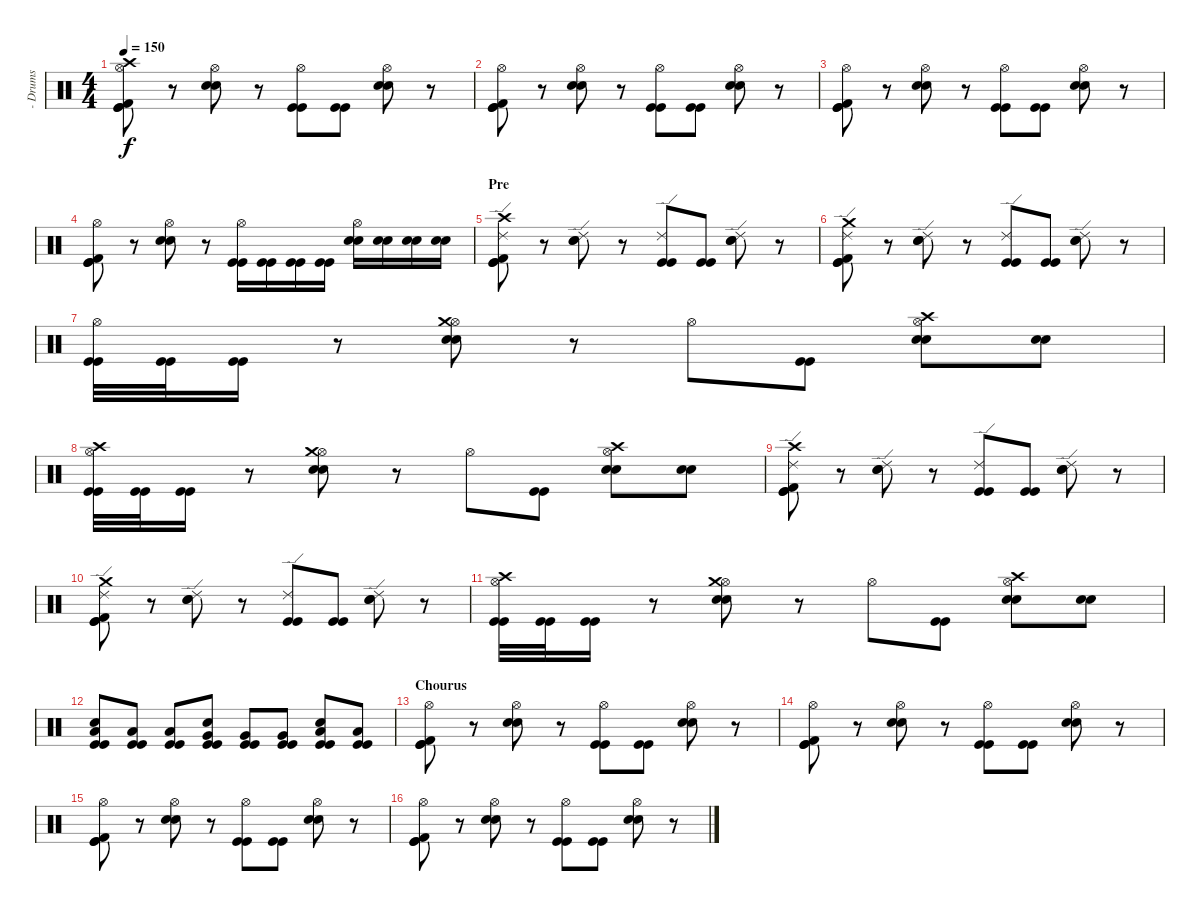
\track (" - Drums" " - Drums") {instrument percussion}
\staff {score}
\articulation defaults
\ts (4 4)
\tempo 150
\clef neutral
\ks c
("Hi-Hat (open)" "Crash high (hit)" "Kick (hit) 2" "Kick (hit)" "Kick (hit)").8{dy f} r.8 ("Hi-Hat (open)" "Snare (hit) 2" "Snare (hit) 2").8 r.8 ("Hi-Hat (open)" "Kick (hit)" "Kick (hit)").8 ("Kick (hit)" "Kick (hit)").8 ("Hi-Hat (open)" "Snare (hit) 2" "Snare (hit) 2").8 r.8 |
("Hi-Hat (open)" "Kick (hit) 2" "Kick (hit)" "Kick (hit)").8 r.8 ("Hi-Hat (open)" "Snare (hit) 2" "Snare (hit) 2").8 r.8 ("Hi-Hat (open)" "Kick (hit)" "Kick (hit)").8 ("Kick (hit)" "Kick (hit)").8 ("Hi-Hat (open)" "Snare (hit) 2" "Snare (hit) 2").8 r.8 |
("Hi-Hat (open)" "Kick (hit) 2" "Kick (hit)" "Kick (hit)").8 r.8 ("Hi-Hat (open)" "Snare (hit) 2" "Snare (hit) 2").8 r.8 ("Hi-Hat (open)" "Kick (hit)" "Kick (hit)").8 ("Kick (hit)" "Kick (hit)").8 ("Hi-Hat (open)" "Snare (hit) 2" "Snare (hit) 2").8 r.8 |
("Hi-Hat (open)" "Kick (hit) 2" "Kick (hit)" "Kick (hit)").8 r.8 ("Hi-Hat (open)" "Snare (hit) 2" "Snare (hit) 2").8 r.8 ("Hi-Hat (open)" "Kick (hit)" "Kick (hit)").16 ("Kick (hit)" "Kick (hit)").16 ("Kick (hit)" "Kick (hit)").16 ("Kick (hit)" "Kick (hit)").16 ("Hi-Hat (open)" "Snare (hit) 2" "Snare (hit) 2").16 ("Snare (hit) 2" "Snare (hit) 2").16 ("Snare (hit) 2" "Snare (hit) 2").16 ("Snare (hit) 2" "Snare (hit) 2").16 |
\section ("" "Pre")
("Ride (edge) 2" "Crash high (hit)" "Kick (hit) 2" "Kick (hit)" "Kick (hit)").8 r.8 ("Ride (edge) 2" "Snare (hit) 2" "Snare (hit) 2").8 r.8 ("Ride (edge) 2" "Kick (hit)" "Kick (hit)").8 ("Kick (hit)" "Kick (hit)").8 ("Ride (edge) 2" "Snare (hit) 2" "Snare (hit) 2").8 r.8 |
("Ride (edge) 2" "Crash medium (hit)" "Kick (hit) 2" "Kick (hit)" "Kick (hit)").8 r.8 ("Ride (edge) 2" "Snare (hit) 2" "Snare (hit) 2").8 r.8 ("Ride (edge) 2" "Kick (hit)" "Kick (hit)").8 ("Kick (hit)" "Kick (hit)").8 ("Ride (edge) 2" "Snare (hit) 2" "Snare (hit) 2").8 r.8 |
("Hi-Hat (open)" "Kick (hit)" "Kick (hit)").32 ("Kick (hit)" "Kick (hit)").32 ("Kick (hit)" "Kick (hit)").16 r.8 ("Hi-Hat (open)" "Crash medium (hit)" "Snare (hit) 2" "Snare (hit) 2").8 r.8 "Hi-Hat (open)".8 ("Kick (hit)" "Kick (hit)").8 ("Hi-Hat (open)" "Crash high (hit)" "Snare (hit) 2" "Snare (hit) 2").8 ("Snare (hit) 2" "Snare (hit) 2").8 |
("Hi-Hat (open)" "Crash high (hit)" "Kick (hit)" "Kick (hit)").32 ("Kick (hit)" "Kick (hit)").32 ("Kick (hit)" "Kick (hit)").16 r.8 ("Hi-Hat (open)" "Crash medium (hit)" "Snare (hit) 2" "Snare (hit) 2").8 r.8 "Hi-Hat (open)".8 ("Kick (hit)" "Kick (hit)").8 ("Hi-Hat (open)" "Crash high (hit)" "Snare (hit) 2" "Snare (hit) 2").8 ("Snare (hit) 2" "Snare (hit) 2").8 |
("Ride (edge) 2" "Crash high (hit)" "Kick (hit) 2" "Kick (hit)" "Kick (hit)").8 r.8 ("Ride (edge) 2" "Snare (hit) 2" "Snare (hit) 2").8 r.8 ("Ride (edge) 2" "Kick (hit)" "Kick (hit)").8 ("Kick (hit)" "Kick (hit)").8 ("Ride (edge) 2" "Snare (hit) 2" "Snare (hit) 2").8 r.8 |
("Ride (edge) 2" "Crash medium (hit)" "Kick (hit) 2" "Kick (hit)" "Kick (hit)").8 r.8 ("Ride (edge) 2" "Snare (hit) 2" "Snare (hit) 2").8 r.8 ("Ride (edge) 2" "Kick (hit)" "Kick (hit)").8 ("Kick (hit)" "Kick (hit)").8 ("Ride (edge) 2" "Snare (hit) 2" "Snare (hit) 2").8 r.8 |
("Hi-Hat (open)" "Crash high (hit)" "Kick (hit)" "Kick (hit)").32 ("Kick (hit)" "Kick (hit)").32 ("Kick (hit)" "Kick (hit)").16 r.8 ("Hi-Hat (open)" "Crash medium (hit)" "Snare (hit) 2" "Snare (hit) 2").8 r.8 "Hi-Hat (open)".8 ("Kick (hit)" "Kick (hit)").8 ("Hi-Hat (open)" "Crash high (hit)" "Snare (hit) 2" "Snare (hit) 2").8 ("Snare (hit) 2" "Snare (hit) 2").8 |
("Low Tom (hit)" "Snare (hit) 2" "Kick (hit)" "Kick (hit)").8 ("Low Tom (hit)" "Kick (hit)" "Kick (hit)").8 ("Low Tom (hit)" "Kick (hit)" "Kick (hit)").8 ("Very Low Tom (hit)" "Snare (hit) 2" "Kick (hit)" "Kick (hit)").8 ("Very Low Tom (hit)" "Kick (hit)" "Kick (hit)").8 ("Very Low Tom (hit)" "Kick (hit)" "Kick (hit)").8 ("Low Floor Tom (hit)" "Snare (hit) 2" "Kick (hit)" "Kick (hit)").8 ("Low Floor Tom (hit)" "Kick (hit)" "Kick (hit)").8 |
\section ("" "Chourus")
("Hi-Hat (open)" "Kick (hit) 2" "Kick (hit)" "Kick (hit)").8 r.8 ("Hi-Hat (open)" "Snare (hit) 2" "Snare (hit) 2").8 r.8 ("Hi-Hat (open)" "Kick (hit)" "Kick (hit)").8 ("Kick (hit)" "Kick (hit)").8 ("Hi-Hat (open)" "Snare (hit) 2" "Snare (hit) 2").8 r.8 |
("Hi-Hat (open)" "Kick (hit) 2" "Kick (hit)" "Kick (hit)").8 r.8 ("Hi-Hat (open)" "Snare (hit) 2" "Snare (hit) 2").8 r.8 ("Hi-Hat (open)" "Kick (hit)" "Kick (hit)").8 ("Kick (hit)" "Kick (hit)").8 ("Hi-Hat (open)" "Snare (hit) 2" "Snare (hit) 2").8 r.8 |
("Hi-Hat (open)" "Kick (hit) 2" "Kick (hit)" "Kick (hit)").8 r.8 ("Hi-Hat (open)" "Snare (hit) 2" "Snare (hit) 2").8 r.8 ("Hi-Hat (open)" "Kick (hit)" "Kick (hit)").8 ("Kick (hit)" "Kick (hit)").8 ("Hi-Hat (open)" "Snare (hit) 2" "Snare (hit) 2").8 r.8 |
("Hi-Hat (open)" "Kick (hit) 2" "Kick (hit)" "Kick (hit)").8 r.8 ("Hi-Hat (open)" "Snare (hit) 2" "Snare (hit) 2").8 r.8 ("Hi-Hat (open)" "Kick (hit)" "Kick (hit)").8 ("Kick (hit)" "Kick (hit)").8 ("Hi-Hat (open)" "Snare (hit) 2" "Snare (hit) 2").8 r.8
